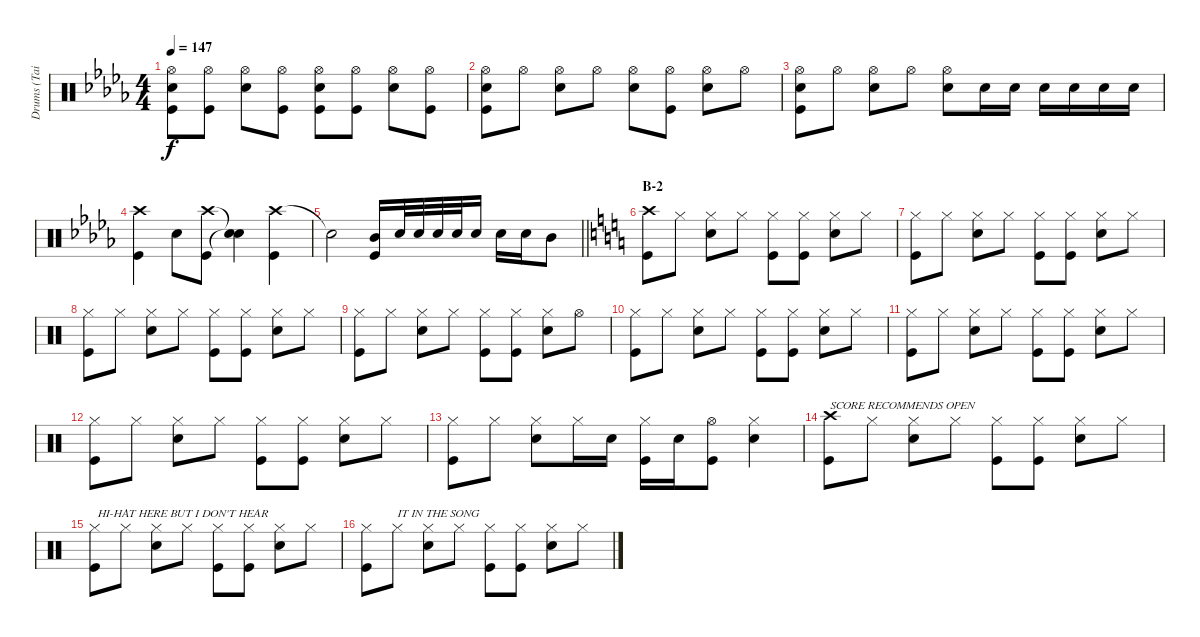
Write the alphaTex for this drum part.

\track ("Drums (Tainaka Ritsu)" "Drums (Tai") {instrument percussion}
\staff {score}
\articulation defaults
\ts (4 4)
\tempo 147
\clef neutral
\ks db
("Hi-Hat (open)" "Snare (hit) 2" "Kick (hit)").8{dy f} ("Hi-Hat (open)" "Kick (hit)").8 ("Hi-Hat (open)" "Snare (hit) 2").8 ("Hi-Hat (open)" "Kick (hit)").8 ("Hi-Hat (open)" "Snare (hit) 2" "Kick (hit)").8 ("Hi-Hat (open)" "Kick (hit)").8 ("Hi-Hat (open)" "Snare (hit) 2").8 ("Hi-Hat (open)" "Kick (hit)").8 |
("Hi-Hat (open)" "Snare (hit) 2" "Kick (hit)").8 "Hi-Hat (open)".8 ("Hi-Hat (open)" "Snare (hit) 2").8 "Hi-Hat (open)".8 ("Hi-Hat (open)" "Snare (hit) 2").8 ("Hi-Hat (open)" "Kick (hit)").8 ("Hi-Hat (open)" "Snare (hit) 2").8 "Hi-Hat (open)".8 |
("Hi-Hat (open)" "Snare (hit) 2" "Kick (hit)").8 "Hi-Hat (open)".8 ("Hi-Hat (open)" "Snare (hit) 2").8 "Hi-Hat (open)".8 ("Hi-Hat (open)" "Snare (hit) 2").8 "Snare (hit) 2".16 "Snare (hit) 2".16 "Snare (hit) 2".16 "Snare (hit) 2".16 "Snare (hit) 2".16 "Snare (hit) 2".16 |
("Crash high (hit)" "Kick (hit)").4 "Snare (hit) 2".8 ("Crash high (hit)" "Kick (hit)").8 ("Snare (hit)"{t} "Snare (hit)"{t}).4 ("Crash high (hit)" "Kick (hit)").4 |
\barLineRight lightlight "Snare (hit)"{t}.2
("Mid Tom (hit)" "Kick (hit)").16 "Snare (hit) 2".32 "Snare (hit) 2".32 "Snare (hit) 2".32 "Snare (hit) 2".32 "Snare (hit) 2".16 "Snare (hit) 2".16 "Snare (hit) 2".16 "Mid Tom (hit)".8 |
\section ("" "B-2")
\ks c
("Crash high (hit)" "Kick (hit)").8 "Hi-Hat (closed)".8 ("Hi-Hat (closed)" "Snare (hit) 2").8 "Hi-Hat (closed)".8 ("Hi-Hat (closed)" "Kick (hit)").8 ("Hi-Hat (closed)" "Kick (hit)").8 ("Hi-Hat (closed)" "Snare (hit) 2").8 "Hi-Hat (closed)".8 |
("Hi-Hat (closed)" "Kick (hit)").8 "Hi-Hat (closed)".8 ("Hi-Hat (closed)" "Snare (hit) 2").8 "Hi-Hat (closed)".8 ("Hi-Hat (closed)" "Kick (hit)").8 ("Hi-Hat (closed)" "Kick (hit)").8 ("Hi-Hat (closed)" "Snare (hit) 2").8 "Hi-Hat (closed)".8 |
("Hi-Hat (closed)" "Kick (hit)").8 "Hi-Hat (closed)".8 ("Hi-Hat (closed)" "Snare (hit) 2").8 "Hi-Hat (closed)".8 ("Hi-Hat (closed)" "Kick (hit)").8 ("Hi-Hat (closed)" "Kick (hit)").8 ("Hi-Hat (closed)" "Snare (hit) 2").8 "Hi-Hat (closed)".8 |
("Hi-Hat (closed)" "Kick (hit)").8 "Hi-Hat (closed)".8 ("Hi-Hat (closed)" "Snare (hit) 2").8 "Hi-Hat (closed)".8 ("Hi-Hat (closed)" "Kick (hit)").8 ("Hi-Hat (closed)" "Kick (hit)").8 ("Hi-Hat (closed)" "Snare (hit) 2").8 "Hi-Hat (open)".8 |
("Hi-Hat (closed)" "Kick (hit)").8 "Hi-Hat (closed)".8 ("Hi-Hat (closed)" "Snare (hit) 2").8 "Hi-Hat (closed)".8 ("Hi-Hat (closed)" "Kick (hit)").8 ("Hi-Hat (closed)" "Kick (hit)").8 ("Hi-Hat (closed)" "Snare (hit) 2").8 "Hi-Hat (closed)".8 |
("Hi-Hat (closed)" "Kick (hit)").8 "Hi-Hat (closed)".8 ("Hi-Hat (closed)" "Snare (hit) 2").8 "Hi-Hat (closed)".8 ("Hi-Hat (closed)" "Kick (hit)").8 ("Hi-Hat (closed)" "Kick (hit)").8 ("Hi-Hat (closed)" "Snare (hit) 2").8 "Hi-Hat (closed)".8 |
("Hi-Hat (closed)" "Kick (hit)").8 "Hi-Hat (closed)".8 ("Hi-Hat (closed)" "Snare (hit) 2").8 "Hi-Hat (closed)".8 ("Hi-Hat (closed)" "Kick (hit)").8 ("Hi-Hat (closed)" "Kick (hit)").8 ("Hi-Hat (closed)" "Snare (hit) 2").8 "Hi-Hat (closed)".8 |
("Hi-Hat (closed)" "Kick (hit)").8 "Hi-Hat (closed)".8 ("Hi-Hat (closed)" "Snare (hit) 2").8 "Hi-Hat (closed)".16 "Snare (hit) 2".16 ("Hi-Hat (closed)" "Kick (hit)").16 "Snare (hit) 2".16 ("Hi-Hat (open)" "Kick (hit)").8 ("Hi-Hat (closed)" "Snare (hit) 2").4 |
("Crash high (hit)" "Kick (hit)").8{txt "SCORE RECOMMENDS OPEN"} "Hi-Hat (closed)".8 ("Hi-Hat (closed)" "Snare (hit) 2").8 "Hi-Hat (closed)".8 ("Hi-Hat (closed)" "Kick (hit)").8 ("Hi-Hat (closed)" "Kick (hit)").8 ("Hi-Hat (closed)" "Snare (hit) 2").8 "Hi-Hat (closed)".8 |
("Hi-Hat (closed)" "Kick (hit)").8{txt " HI-HAT HERE BUT I DON'T HEAR"} "Hi-Hat (closed)".8 ("Hi-Hat (closed)" "Snare (hit) 2").8 "Hi-Hat (closed)".8 ("Hi-Hat (closed)" "Kick (hit)").8 ("Hi-Hat (closed)" "Kick (hit)").8 ("Hi-Hat (closed)" "Snare (hit) 2").8 "Hi-Hat (closed)".8 |
("Hi-Hat (closed)" "Kick (hit)").8 "Hi-Hat (closed)".8{txt "IT IN THE SONG"} ("Hi-Hat (closed)" "Snare (hit) 2").8 "Hi-Hat (closed)".8 ("Hi-Hat (closed)" "Kick (hit)").8 ("Hi-Hat (closed)" "Kick (hit)").8 ("Hi-Hat (closed)" "Snare (hit) 2").8 "Hi-Hat (closed)".8
